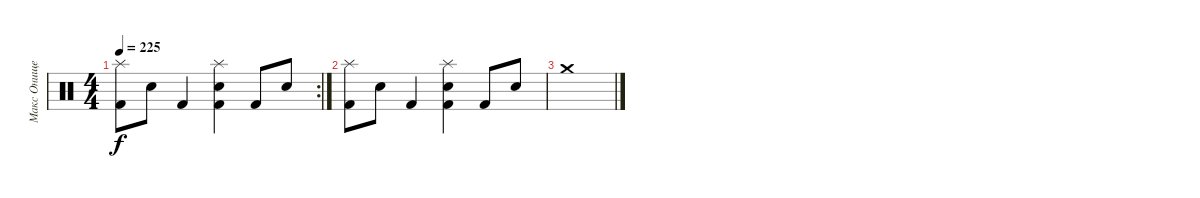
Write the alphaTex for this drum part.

\track ("Макс Онищенко" "Макс Онище") {instrument percussion}
\staff {score}
\articulation defaults
\rc 2
\ts (4 4)
\tempo 225
\clef neutral
\ks c
("Splash (hit)" "Kick (hit) 2").8{dy f} "Electric Snare (hit)".8 "Kick (hit) 2".4 ("Splash (hit)" "Kick (hit) 2" "Electric Snare (hit)").4 "Kick (hit) 2".8 "Electric Snare (hit)".8 |
("Splash (hit)" "Kick (hit) 2").8 "Electric Snare (hit)".8 "Kick (hit) 2".4 ("Splash (hit)" "Kick (hit) 2" "Electric Snare (hit)").4 "Kick (hit) 2".8 "Electric Snare (hit)".8 |
"Crash medium (hit)".1
